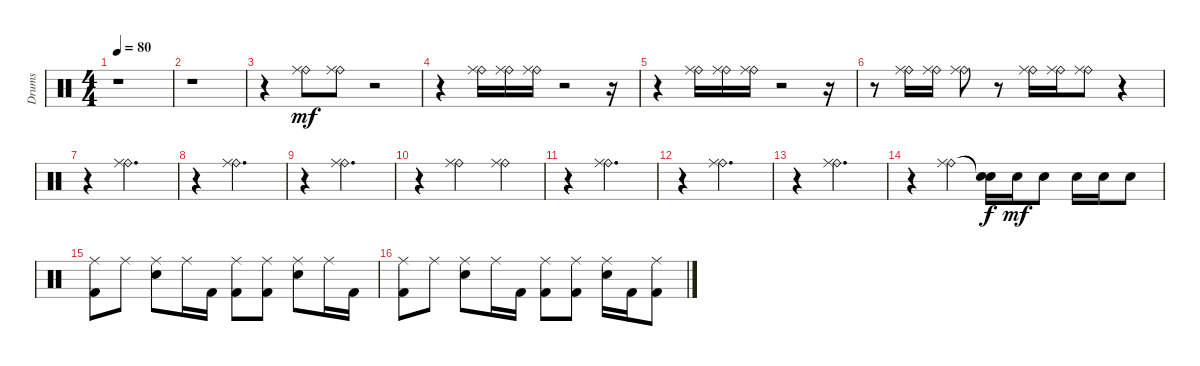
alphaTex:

\track ("Drums" "Drums") {instrument percussion}
\staff {score}
\articulation defaults
\ts (4 4)
\tempo 80
\clef neutral
\ks c
r.1{dy mf} |
r.1 |
r.4 ("Ride (bell)" "Ride (middle)").8 ("Ride (bell)" "Ride (middle)").8 r.2 |
r.4 ("Ride (bell)" "Ride (middle)").16 ("Ride (bell)" "Ride (middle)").16 ("Ride (bell)" "Ride (middle)").16 r.2 r.16 |
r.4 ("Ride (bell)" "Ride (middle)").16 ("Ride (bell)" "Ride (middle)").16 ("Ride (bell)" "Ride (middle)").16 r.2 r.16 |
r.8 ("Ride (bell)" "Ride (middle)").16 ("Ride (bell)" "Ride (middle)").16 ("Ride (bell)" "Ride (middle)").8 r.8 ("Ride (bell)" "Ride (middle)").16 ("Ride (bell)" "Ride (middle)").16 ("Ride (bell)" "Ride (middle)").8 r.4 |
r.4 ("Ride (bell)" "Ride (middle)").2{d} |
r.4 ("Ride (bell)" "Ride (middle)").2{d} |
r.4 ("Ride (bell)" "Ride (middle)").2{d} |
r.4 ("Ride (bell)" "Ride (middle)").2 ("Ride (bell)" "Ride (middle)").4 |
r.4 ("Ride (bell)" "Ride (middle)").2{d} |
r.4 ("Ride (bell)" "Ride (middle)").2{d} |
r.4 ("Ride (bell)" "Ride (middle)").2{d} |
r.4 ("Ride (bell)" "Ride (middle)").4 ("Snare (hit)"{t} "Snare (hit)"{t}).16{dy f} "Electric Snare (hit)".16{dy mf} "Electric Snare (hit)".8 "Electric Snare (hit)".16 "Electric Snare (hit)".16 "Electric Snare (hit)".8 |
("Ride (middle)" "Kick (hit) 2").8 "Ride (middle)".8 ("Ride (middle)" "Electric Snare (hit)").8 "Ride (middle)".16 "Kick (hit) 2".16 ("Ride (middle)" "Kick (hit) 2").8 ("Ride (middle)" "Kick (hit) 2").8 ("Ride (middle)" "Electric Snare (hit)").8 "Ride (middle)".16 "Kick (hit) 2".16 |
("Ride (middle)" "Kick (hit) 2").8 "Ride (middle)".8 ("Ride (middle)" "Electric Snare (hit)").8 "Ride (middle)".16 "Kick (hit) 2".16 ("Ride (middle)" "Kick (hit) 2").8 ("Ride (middle)" "Kick (hit) 2").8 ("Ride (middle)" "Electric Snare (hit)").16 "Kick (hit) 2".16 ("Ride (middle)" "Kick (hit) 2").8
